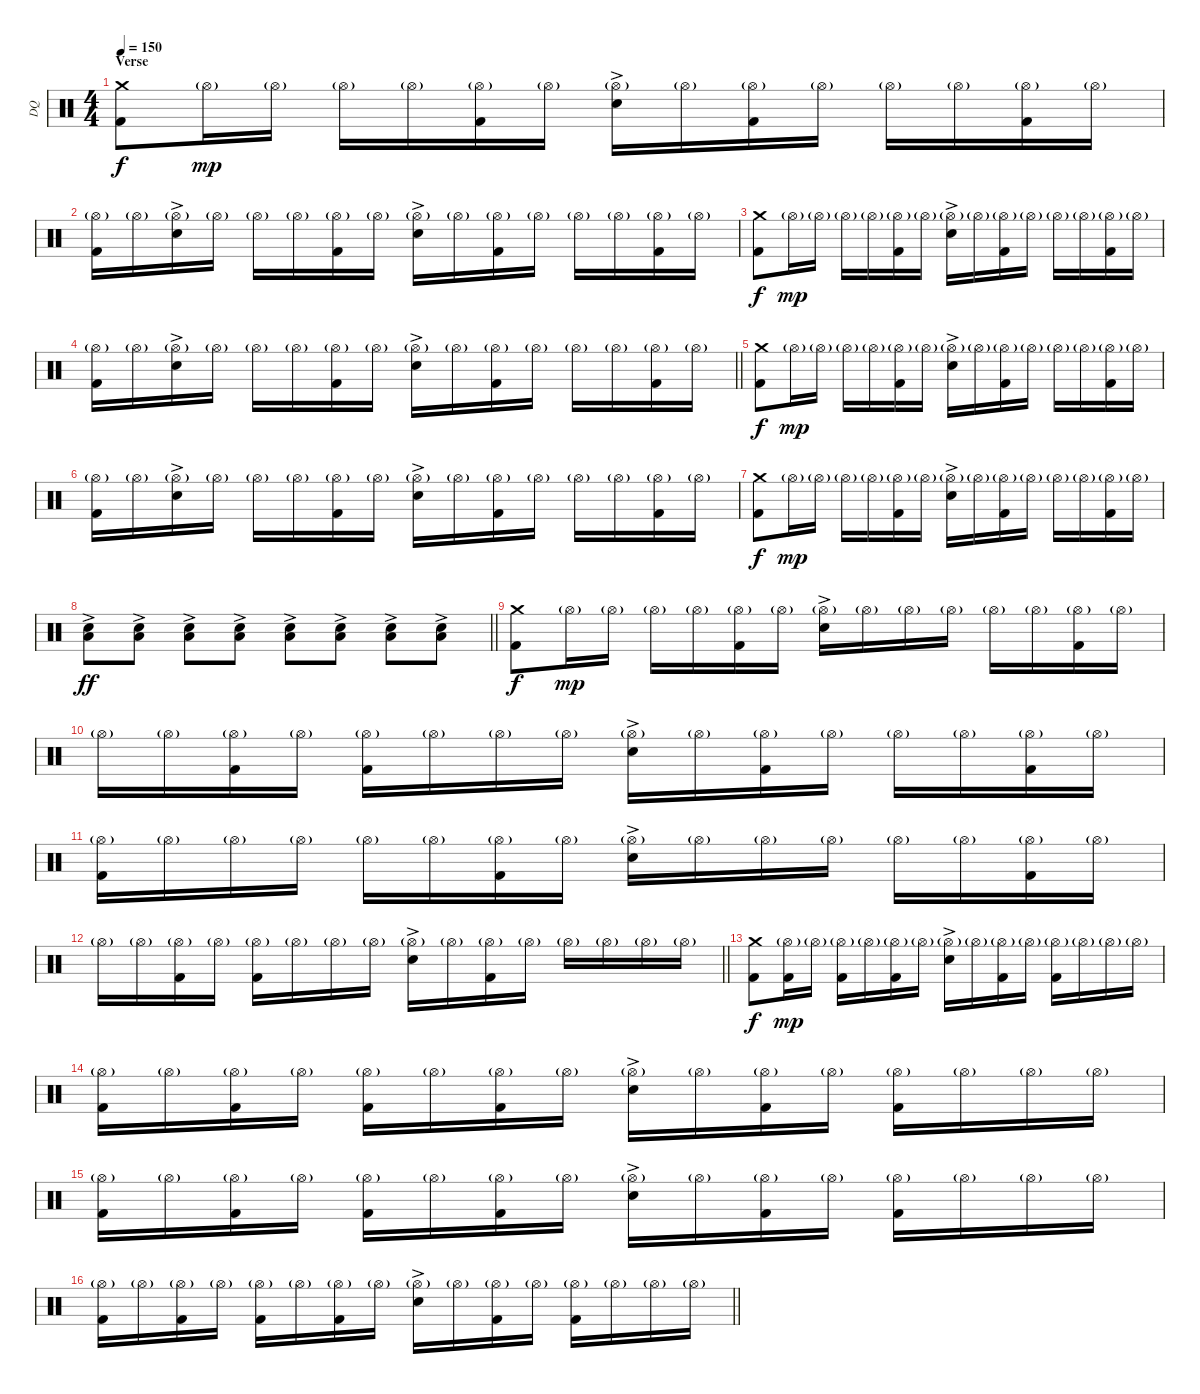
\track ("DQ" "DQ") {instrument percussion}
\staff {score}
\articulation defaults
\ts (4 4)
\section ("" "Verse")
\tempo 150
\clef neutral
\ks c
("Kick (hit) 2" "Crash medium (hit)").8{dy f} "Hi-Hat (open)"{g}.16{dy mp} "Hi-Hat (open)"{g}.16 "Hi-Hat (open)"{g}.16 "Hi-Hat (open)"{g}.16 ("Kick (hit) 2" "Hi-Hat (open)"{g}).16 "Hi-Hat (open)"{g}.16 ("Snare (hit) 2"{ac} "Hi-Hat (open)"{g}).16 "Hi-Hat (open)"{g}.16 ("Kick (hit) 2" "Hi-Hat (open)"{g}).16 "Hi-Hat (open)"{g}.16 "Hi-Hat (open)"{g}.16 "Hi-Hat (open)"{g}.16 ("Kick (hit) 2" "Hi-Hat (open)"{g}).16 "Hi-Hat (open)"{g}.16 |
("Kick (hit) 2" "Hi-Hat (open)"{g}).16 "Hi-Hat (open)"{g}.16 ("Snare (hit) 2"{ac} "Hi-Hat (open)"{g}).16 "Hi-Hat (open)"{g}.16 "Hi-Hat (open)"{g}.16 "Hi-Hat (open)"{g}.16 ("Kick (hit) 2" "Hi-Hat (open)"{g}).16 "Hi-Hat (open)"{g}.16 ("Snare (hit) 2"{ac} "Hi-Hat (open)"{g}).16 "Hi-Hat (open)"{g}.16 ("Kick (hit) 2" "Hi-Hat (open)"{g}).16 "Hi-Hat (open)"{g}.16 "Hi-Hat (open)"{g}.16 "Hi-Hat (open)"{g}.16 ("Kick (hit) 2" "Hi-Hat (open)"{g}).16 "Hi-Hat (open)"{g}.16 |
("Kick (hit) 2" "Crash medium (hit)").8{dy f} "Hi-Hat (open)"{g}.16{dy mp} "Hi-Hat (open)"{g}.16 "Hi-Hat (open)"{g}.16 "Hi-Hat (open)"{g}.16 ("Kick (hit) 2" "Hi-Hat (open)"{g}).16 "Hi-Hat (open)"{g}.16 ("Snare (hit) 2"{ac} "Hi-Hat (open)"{g}).16 "Hi-Hat (open)"{g}.16 ("Kick (hit) 2" "Hi-Hat (open)"{g}).16 "Hi-Hat (open)"{g}.16 "Hi-Hat (open)"{g}.16 "Hi-Hat (open)"{g}.16 ("Kick (hit) 2" "Hi-Hat (open)"{g}).16 "Hi-Hat (open)"{g}.16 |
\barLineRight lightlight
("Kick (hit) 2" "Hi-Hat (open)"{g}).16 "Hi-Hat (open)"{g}.16 ("Snare (hit) 2"{ac} "Hi-Hat (open)"{g}).16 "Hi-Hat (open)"{g}.16 "Hi-Hat (open)"{g}.16 "Hi-Hat (open)"{g}.16 ("Kick (hit) 2" "Hi-Hat (open)"{g}).16 "Hi-Hat (open)"{g}.16 ("Snare (hit) 2"{ac} "Hi-Hat (open)"{g}).16 "Hi-Hat (open)"{g}.16 ("Kick (hit) 2" "Hi-Hat (open)"{g}).16 "Hi-Hat (open)"{g}.16 "Hi-Hat (open)"{g}.16 "Hi-Hat (open)"{g}.16 ("Kick (hit) 2" "Hi-Hat (open)"{g}).16 "Hi-Hat (open)"{g}.16 |
\section ("" "")
("Kick (hit) 2" "Crash medium (hit)").8{dy f} "Hi-Hat (open)"{g}.16{dy mp} "Hi-Hat (open)"{g}.16 "Hi-Hat (open)"{g}.16 "Hi-Hat (open)"{g}.16 ("Kick (hit) 2" "Hi-Hat (open)"{g}).16 "Hi-Hat (open)"{g}.16 ("Snare (hit) 2"{ac} "Hi-Hat (open)"{g}).16 "Hi-Hat (open)"{g}.16 ("Kick (hit) 2" "Hi-Hat (open)"{g}).16 "Hi-Hat (open)"{g}.16 "Hi-Hat (open)"{g}.16 "Hi-Hat (open)"{g}.16 ("Kick (hit) 2" "Hi-Hat (open)"{g}).16 "Hi-Hat (open)"{g}.16 |
("Kick (hit) 2" "Hi-Hat (open)"{g}).16 "Hi-Hat (open)"{g}.16 ("Snare (hit) 2"{ac} "Hi-Hat (open)"{g}).16 "Hi-Hat (open)"{g}.16 "Hi-Hat (open)"{g}.16 "Hi-Hat (open)"{g}.16 ("Kick (hit) 2" "Hi-Hat (open)"{g}).16 "Hi-Hat (open)"{g}.16 ("Snare (hit) 2"{ac} "Hi-Hat (open)"{g}).16 "Hi-Hat (open)"{g}.16 ("Kick (hit) 2" "Hi-Hat (open)"{g}).16 "Hi-Hat (open)"{g}.16 "Hi-Hat (open)"{g}.16 "Hi-Hat (open)"{g}.16 ("Kick (hit) 2" "Hi-Hat (open)"{g}).16 "Hi-Hat (open)"{g}.16 |
("Kick (hit) 2" "Crash medium (hit)").8{dy f} "Hi-Hat (open)"{g}.16{dy mp} "Hi-Hat (open)"{g}.16 "Hi-Hat (open)"{g}.16 "Hi-Hat (open)"{g}.16 ("Kick (hit) 2" "Hi-Hat (open)"{g}).16 "Hi-Hat (open)"{g}.16 ("Snare (hit) 2"{ac} "Hi-Hat (open)"{g}).16 "Hi-Hat (open)"{g}.16 ("Kick (hit) 2" "Hi-Hat (open)"{g}).16 "Hi-Hat (open)"{g}.16 "Hi-Hat (open)"{g}.16 "Hi-Hat (open)"{g}.16 ("Kick (hit) 2" "Hi-Hat (open)"{g}).16 "Hi-Hat (open)"{g}.16 |
\barLineRight lightlight
("Snare (hit) 2" "Low Tom (hit)"{ac}).8{dy ff} ("Snare (hit) 2" "Low Tom (hit)"{ac}).8 ("Snare (hit) 2" "Low Tom (hit)"{ac}).8 ("Snare (hit) 2" "Low Tom (hit)"{ac}).8 ("Snare (hit) 2" "Low Tom (hit)"{ac}).8 ("Snare (hit) 2" "Low Tom (hit)"{ac}).8 ("Snare (hit) 2" "Low Tom (hit)"{ac}).8 ("Snare (hit) 2" "Low Tom (hit)"{ac}).8 |
\section ("" "")
("Kick (hit) 2" "Crash medium (hit)").8{dy f} "Hi-Hat (open)"{g}.16{dy mp} "Hi-Hat (open)"{g}.16 "Hi-Hat (open)"{g}.16 "Hi-Hat (open)"{g}.16 ("Kick (hit) 2" "Hi-Hat (open)"{g}).16 "Hi-Hat (open)"{g}.16 ("Snare (hit) 2"{ac} "Hi-Hat (open)"{g}).16 "Hi-Hat (open)"{g}.16 "Hi-Hat (open)"{g}.16 "Hi-Hat (open)"{g}.16 "Hi-Hat (open)"{g}.16 "Hi-Hat (open)"{g}.16 ("Kick (hit) 2" "Hi-Hat (open)"{g}).16 "Hi-Hat (open)"{g}.16 |
"Hi-Hat (open)"{g}.16 "Hi-Hat (open)"{g}.16 ("Kick (hit) 2" "Hi-Hat (open)"{g}).16 "Hi-Hat (open)"{g}.16 ("Kick (hit) 2" "Hi-Hat (open)"{g}).16 "Hi-Hat (open)"{g}.16 "Hi-Hat (open)"{g}.16 "Hi-Hat (open)"{g}.16 ("Snare (hit) 2"{ac} "Hi-Hat (open)"{g}).16 "Hi-Hat (open)"{g}.16 ("Kick (hit) 2" "Hi-Hat (open)"{g}).16 "Hi-Hat (open)"{g}.16 "Hi-Hat (open)"{g}.16 "Hi-Hat (open)"{g}.16 ("Kick (hit) 2" "Hi-Hat (open)"{g}).16 "Hi-Hat (open)"{g}.16 |
("Kick (hit) 2" "Hi-Hat (open)"{g}).16 "Hi-Hat (open)"{g}.16 "Hi-Hat (open)"{g}.16 "Hi-Hat (open)"{g}.16 "Hi-Hat (open)"{g}.16 "Hi-Hat (open)"{g}.16 ("Kick (hit) 2" "Hi-Hat (open)"{g}).16 "Hi-Hat (open)"{g}.16 ("Snare (hit) 2"{ac} "Hi-Hat (open)"{g}).16 "Hi-Hat (open)"{g}.16 "Hi-Hat (open)"{g}.16 "Hi-Hat (open)"{g}.16 "Hi-Hat (open)"{g}.16 "Hi-Hat (open)"{g}.16 ("Kick (hit) 2" "Hi-Hat (open)"{g}).16 "Hi-Hat (open)"{g}.16 |
\barLineRight lightlight "Hi-Hat (open)"{g}.16 "Hi-Hat (open)"{g}.16
("Kick (hit) 2" "Hi-Hat (open)"{g}).16 "Hi-Hat (open)"{g}.16 ("Kick (hit) 2" "Hi-Hat (open)"{g}).16 "Hi-Hat (open)"{g}.16 "Hi-Hat (open)"{g}.16 "Hi-Hat (open)"{g}.16 ("Snare (hit) 2"{ac} "Hi-Hat (open)"{g}).16 "Hi-Hat (open)"{g}.16 ("Kick (hit) 2" "Hi-Hat (open)"{g}).16 "Hi-Hat (open)"{g}.16 "Hi-Hat (open)"{g}.16 "Hi-Hat (open)"{g}.16 "Hi-Hat (open)"{g}.16 "Hi-Hat (open)"{g}.16 |
\section ("" "")
("Kick (hit) 2" "Crash medium (hit)").8{dy f} ("Kick (hit) 2" "Hi-Hat (open)"{g}).16{dy mp} "Hi-Hat (open)"{g}.16 ("Kick (hit) 2" "Hi-Hat (open)"{g}).16 "Hi-Hat (open)"{g}.16 ("Kick (hit) 2" "Hi-Hat (open)"{g}).16 "Hi-Hat (open)"{g}.16 ("Snare (hit) 2"{ac} "Hi-Hat (open)"{g}).16 "Hi-Hat (open)"{g}.16 ("Kick (hit) 2" "Hi-Hat (open)"{g}).16 "Hi-Hat (open)"{g}.16 ("Kick (hit) 2" "Hi-Hat (open)"{g}).16 "Hi-Hat (open)"{g}.16 "Hi-Hat (open)"{g}.16 "Hi-Hat (open)"{g}.16 |
("Kick (hit) 2" "Hi-Hat (open)"{g}).16 "Hi-Hat (open)"{g}.16 ("Kick (hit) 2" "Hi-Hat (open)"{g}).16 "Hi-Hat (open)"{g}.16 ("Kick (hit) 2" "Hi-Hat (open)"{g}).16 "Hi-Hat (open)"{g}.16 ("Kick (hit) 2" "Hi-Hat (open)"{g}).16 "Hi-Hat (open)"{g}.16 ("Snare (hit) 2"{ac} "Hi-Hat (open)"{g}).16 "Hi-Hat (open)"{g}.16 ("Kick (hit) 2" "Hi-Hat (open)"{g}).16 "Hi-Hat (open)"{g}.16 ("Kick (hit) 2" "Hi-Hat (open)"{g}).16 "Hi-Hat (open)"{g}.16 "Hi-Hat (open)"{g}.16 "Hi-Hat (open)"{g}.16 |
("Kick (hit) 2" "Hi-Hat (open)"{g}).16 "Hi-Hat (open)"{g}.16 ("Kick (hit) 2" "Hi-Hat (open)"{g}).16 "Hi-Hat (open)"{g}.16 ("Kick (hit) 2" "Hi-Hat (open)"{g}).16 "Hi-Hat (open)"{g}.16 ("Kick (hit) 2" "Hi-Hat (open)"{g}).16 "Hi-Hat (open)"{g}.16 ("Snare (hit) 2"{ac} "Hi-Hat (open)"{g}).16 "Hi-Hat (open)"{g}.16 ("Kick (hit) 2" "Hi-Hat (open)"{g}).16 "Hi-Hat (open)"{g}.16 ("Kick (hit) 2" "Hi-Hat (open)"{g}).16 "Hi-Hat (open)"{g}.16 "Hi-Hat (open)"{g}.16 "Hi-Hat (open)"{g}.16 |
\barLineRight lightlight
("Kick (hit) 2" "Hi-Hat (open)"{g}).16 "Hi-Hat (open)"{g}.16 ("Kick (hit) 2" "Hi-Hat (open)"{g}).16 "Hi-Hat (open)"{g}.16 ("Kick (hit) 2" "Hi-Hat (open)"{g}).16 "Hi-Hat (open)"{g}.16 ("Kick (hit) 2" "Hi-Hat (open)"{g}).16 "Hi-Hat (open)"{g}.16 ("Snare (hit) 2"{ac} "Hi-Hat (open)"{g}).16 "Hi-Hat (open)"{g}.16 ("Kick (hit) 2" "Hi-Hat (open)"{g}).16 "Hi-Hat (open)"{g}.16 ("Kick (hit) 2" "Hi-Hat (open)"{g}).16 "Hi-Hat (open)"{g}.16 "Hi-Hat (open)"{g}.16 "Hi-Hat (open)"{g}.16
